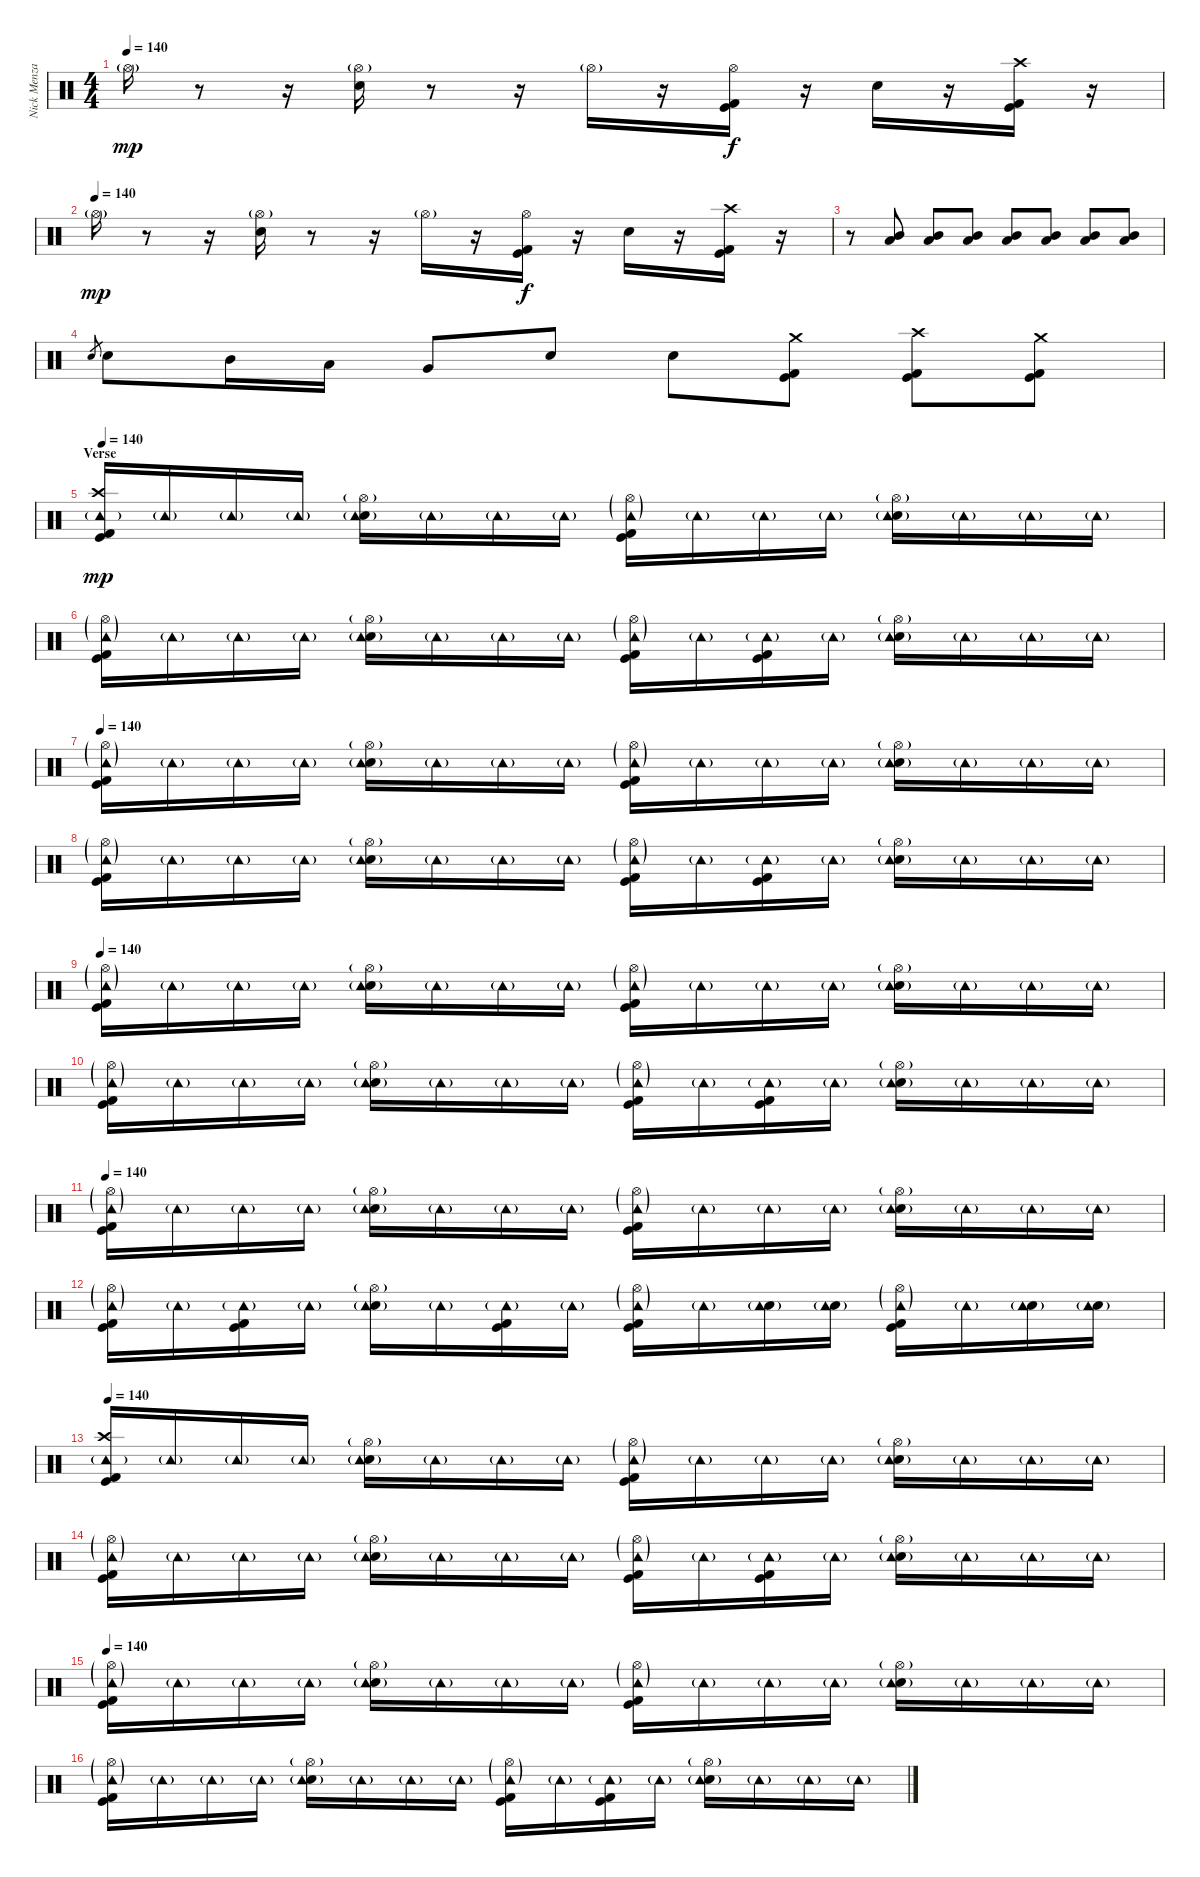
\track ("Nick Menza" "Nick Menza") {instrument percussion}
\staff {score}
\articulation defaults
\ts (4 4)
\tempo 140
\clef neutral
\ks c "Hi-Hat (open)"{g}.16{dy mp}
r.8 r.16 ("Hi-Hat (open)"{g} "Electric Snare (hit)").16 r.8 r.16 "Hi-Hat (open)"{g}.16 r.16 ("Hi-Hat (open)" "Kick (hit)" "Kick (hit) 2").16{dy f} r.16 "Electric Snare (hit)".16 r.16 ("Crash high (hit)" "Kick (hit)" "Kick (hit) 2").16 r.16 |
\tempo (140)
"Hi-Hat (open)"{g}.16{dy mp} r.8 r.16 ("Hi-Hat (open)"{g} "Electric Snare (hit)").16 r.8 r.16 "Hi-Hat (open)"{g}.16 r.16 ("Hi-Hat (open)" "Kick (hit)" "Kick (hit) 2").16{dy f} r.16 "Electric Snare (hit)".16 r.16 ("Crash high (hit)" "Kick (hit)" "Kick (hit) 2").16 r.16 |
r.8 ("Mid Tom (hit)" "Low Floor Tom (hit)").8 ("Mid Tom (hit)" "Low Floor Tom (hit)").8 ("Mid Tom (hit)" "Low Floor Tom (hit)").8 ("Mid Tom (hit)" "Low Floor Tom (hit)").8 ("Mid Tom (hit)" "Low Floor Tom (hit)").8 ("Mid Tom (hit)" "Low Floor Tom (hit)").8 ("Mid Tom (hit)" "Low Floor Tom (hit)").8 |
"Electric Snare (hit)".8{gr} "Electric Snare (hit)".8 "Mid Tom (hit)".16 "Low Tom (hit)".16 "Very Low Tom (hit)".8 "Electric Snare (hit)".8 "Electric Snare (hit)".8 ("Crash medium (hit)" "Kick (hit)" "Kick (hit) 2").8 ("Crash high (hit)" "Kick (hit)" "Kick (hit) 2").8 ("Crash medium (hit)" "Kick (hit)" "Kick (hit) 2").8 |
\section ("" "Verse")
\tempo 140
("Crash high (hit)" "Kick (hit)" "Kick (hit) 2" "Tambourine (hit)"{g}).16{dy mp} "Tambourine (hit)"{g}.16 "Tambourine (hit)"{g}.16 "Tambourine (hit)"{g}.16 ("Hi-Hat (open)"{g} "Electric Snare (hit)" "Tambourine (hit)"{g}).16 "Tambourine (hit)"{g}.16 "Tambourine (hit)"{g}.16 "Tambourine (hit)"{g}.16 ("Hi-Hat (open)"{g} "Kick (hit)" "Kick (hit) 2" "Tambourine (hit)"{g}).16 "Tambourine (hit)"{g}.16 "Tambourine (hit)"{g}.16 "Tambourine (hit)"{g}.16 ("Hi-Hat (open)"{g} "Electric Snare (hit)" "Tambourine (hit)"{g}).16 "Tambourine (hit)"{g}.16 "Tambourine (hit)"{g}.16 "Tambourine (hit)"{g}.16 |
("Hi-Hat (open)"{g} "Kick (hit)" "Kick (hit) 2" "Tambourine (hit)"{g}).16 "Tambourine (hit)"{g}.16 "Tambourine (hit)"{g}.16 "Tambourine (hit)"{g}.16 ("Hi-Hat (open)"{g} "Electric Snare (hit)" "Tambourine (hit)"{g}).16 "Tambourine (hit)"{g}.16 "Tambourine (hit)"{g}.16 "Tambourine (hit)"{g}.16 ("Hi-Hat (open)"{g} "Kick (hit)" "Kick (hit) 2" "Tambourine (hit)"{g}).16 "Tambourine (hit)"{g}.16 ("Kick (hit)" "Kick (hit) 2" "Tambourine (hit)"{g}).16 "Tambourine (hit)"{g}.16 ("Hi-Hat (open)"{g} "Electric Snare (hit)" "Tambourine (hit)"{g}).16 "Tambourine (hit)"{g}.16 "Tambourine (hit)"{g}.16 "Tambourine (hit)"{g}.16 |
\tempo 140
("Hi-Hat (open)"{g} "Kick (hit)" "Kick (hit) 2" "Tambourine (hit)"{g}).16 "Tambourine (hit)"{g}.16 "Tambourine (hit)"{g}.16 "Tambourine (hit)"{g}.16 ("Hi-Hat (open)"{g} "Electric Snare (hit)" "Tambourine (hit)"{g}).16 "Tambourine (hit)"{g}.16 "Tambourine (hit)"{g}.16 "Tambourine (hit)"{g}.16 ("Hi-Hat (open)"{g} "Kick (hit)" "Kick (hit) 2" "Tambourine (hit)"{g}).16 "Tambourine (hit)"{g}.16 "Tambourine (hit)"{g}.16 "Tambourine (hit)"{g}.16 ("Hi-Hat (open)"{g} "Electric Snare (hit)" "Tambourine (hit)"{g}).16 "Tambourine (hit)"{g}.16 "Tambourine (hit)"{g}.16 "Tambourine (hit)"{g}.16 |
("Hi-Hat (open)"{g} "Kick (hit)" "Kick (hit) 2" "Tambourine (hit)"{g}).16 "Tambourine (hit)"{g}.16 "Tambourine (hit)"{g}.16 "Tambourine (hit)"{g}.16 ("Hi-Hat (open)"{g} "Electric Snare (hit)" "Tambourine (hit)"{g}).16 "Tambourine (hit)"{g}.16 "Tambourine (hit)"{g}.16 "Tambourine (hit)"{g}.16 ("Hi-Hat (open)"{g} "Kick (hit)" "Kick (hit) 2" "Tambourine (hit)"{g}).16 "Tambourine (hit)"{g}.16 ("Kick (hit)" "Kick (hit) 2" "Tambourine (hit)"{g}).16 "Tambourine (hit)"{g}.16 ("Hi-Hat (open)"{g} "Electric Snare (hit)" "Tambourine (hit)"{g}).16 "Tambourine (hit)"{g}.16 "Tambourine (hit)"{g}.16 "Tambourine (hit)"{g}.16 |
\tempo 140
("Hi-Hat (open)"{g} "Kick (hit)" "Kick (hit) 2" "Tambourine (hit)"{g}).16 "Tambourine (hit)"{g}.16 "Tambourine (hit)"{g}.16 "Tambourine (hit)"{g}.16 ("Hi-Hat (open)"{g} "Electric Snare (hit)" "Tambourine (hit)"{g}).16 "Tambourine (hit)"{g}.16 "Tambourine (hit)"{g}.16 "Tambourine (hit)"{g}.16 ("Hi-Hat (open)"{g} "Kick (hit)" "Kick (hit) 2" "Tambourine (hit)"{g}).16 "Tambourine (hit)"{g}.16 "Tambourine (hit)"{g}.16 "Tambourine (hit)"{g}.16 ("Hi-Hat (open)"{g} "Electric Snare (hit)" "Tambourine (hit)"{g}).16 "Tambourine (hit)"{g}.16 "Tambourine (hit)"{g}.16 "Tambourine (hit)"{g}.16 |
("Hi-Hat (open)"{g} "Kick (hit)" "Kick (hit) 2" "Tambourine (hit)"{g}).16 "Tambourine (hit)"{g}.16 "Tambourine (hit)"{g}.16 "Tambourine (hit)"{g}.16 ("Hi-Hat (open)"{g} "Electric Snare (hit)" "Tambourine (hit)"{g}).16 "Tambourine (hit)"{g}.16 "Tambourine (hit)"{g}.16 "Tambourine (hit)"{g}.16 ("Hi-Hat (open)"{g} "Kick (hit)" "Kick (hit) 2" "Tambourine (hit)"{g}).16 "Tambourine (hit)"{g}.16 ("Kick (hit)" "Kick (hit) 2" "Tambourine (hit)"{g}).16 "Tambourine (hit)"{g}.16 ("Hi-Hat (open)"{g} "Electric Snare (hit)" "Tambourine (hit)"{g}).16 "Tambourine (hit)"{g}.16 "Tambourine (hit)"{g}.16 "Tambourine (hit)"{g}.16 |
\tempo 140
("Hi-Hat (open)"{g} "Kick (hit)" "Kick (hit) 2" "Tambourine (hit)"{g}).16 "Tambourine (hit)"{g}.16 "Tambourine (hit)"{g}.16 "Tambourine (hit)"{g}.16 ("Hi-Hat (open)"{g} "Electric Snare (hit)" "Tambourine (hit)"{g}).16 "Tambourine (hit)"{g}.16 "Tambourine (hit)"{g}.16 "Tambourine (hit)"{g}.16 ("Hi-Hat (open)"{g} "Kick (hit)" "Kick (hit) 2" "Tambourine (hit)"{g}).16 "Tambourine (hit)"{g}.16 "Tambourine (hit)"{g}.16 "Tambourine (hit)"{g}.16 ("Hi-Hat (open)"{g} "Electric Snare (hit)" "Tambourine (hit)"{g}).16 "Tambourine (hit)"{g}.16 "Tambourine (hit)"{g}.16 "Tambourine (hit)"{g}.16 |
("Hi-Hat (open)"{g} "Kick (hit)" "Kick (hit) 2" "Tambourine (hit)"{g}).16 "Tambourine (hit)"{g}.16 ("Kick (hit)" "Kick (hit) 2" "Tambourine (hit)"{g}).16 "Tambourine (hit)"{g}.16 ("Hi-Hat (open)"{g} "Electric Snare (hit)" "Tambourine (hit)"{g}).16 "Tambourine (hit)"{g}.16 ("Kick (hit)" "Kick (hit) 2" "Tambourine (hit)"{g}).16 "Tambourine (hit)"{g}.16 ("Hi-Hat (open)"{g} "Kick (hit)" "Kick (hit) 2" "Tambourine (hit)"{g}).16 "Tambourine (hit)"{g}.16 ("Electric Snare (hit)" "Tambourine (hit)"{g}).16 ("Electric Snare (hit)" "Tambourine (hit)"{g}).16 ("Hi-Hat (open)"{g} "Kick (hit)" "Kick (hit) 2" "Tambourine (hit)"{g}).16 "Tambourine (hit)"{g}.16 ("Electric Snare (hit)" "Tambourine (hit)"{g}).16 ("Electric Snare (hit)" "Tambourine (hit)"{g}).16 |
\tempo 140
("Crash high (hit)" "Kick (hit)" "Kick (hit) 2" "Tambourine (hit)"{g}).16 "Tambourine (hit)"{g}.16 "Tambourine (hit)"{g}.16 "Tambourine (hit)"{g}.16 ("Hi-Hat (open)"{g} "Electric Snare (hit)" "Tambourine (hit)"{g}).16 "Tambourine (hit)"{g}.16 "Tambourine (hit)"{g}.16 "Tambourine (hit)"{g}.16 ("Hi-Hat (open)"{g} "Kick (hit)" "Kick (hit) 2" "Tambourine (hit)"{g}).16 "Tambourine (hit)"{g}.16 "Tambourine (hit)"{g}.16 "Tambourine (hit)"{g}.16 ("Hi-Hat (open)"{g} "Electric Snare (hit)" "Tambourine (hit)"{g}).16 "Tambourine (hit)"{g}.16 "Tambourine (hit)"{g}.16 "Tambourine (hit)"{g}.16 |
("Hi-Hat (open)"{g} "Kick (hit)" "Kick (hit) 2" "Tambourine (hit)"{g}).16 "Tambourine (hit)"{g}.16 "Tambourine (hit)"{g}.16 "Tambourine (hit)"{g}.16 ("Hi-Hat (open)"{g} "Electric Snare (hit)" "Tambourine (hit)"{g}).16 "Tambourine (hit)"{g}.16 "Tambourine (hit)"{g}.16 "Tambourine (hit)"{g}.16 ("Hi-Hat (open)"{g} "Kick (hit)" "Kick (hit) 2" "Tambourine (hit)"{g}).16 "Tambourine (hit)"{g}.16 ("Kick (hit)" "Kick (hit) 2" "Tambourine (hit)"{g}).16 "Tambourine (hit)"{g}.16 ("Hi-Hat (open)"{g} "Electric Snare (hit)" "Tambourine (hit)"{g}).16 "Tambourine (hit)"{g}.16 "Tambourine (hit)"{g}.16 "Tambourine (hit)"{g}.16 |
\tempo 140
("Hi-Hat (open)"{g} "Kick (hit)" "Kick (hit) 2" "Tambourine (hit)"{g}).16 "Tambourine (hit)"{g}.16 "Tambourine (hit)"{g}.16 "Tambourine (hit)"{g}.16 ("Hi-Hat (open)"{g} "Electric Snare (hit)" "Tambourine (hit)"{g}).16 "Tambourine (hit)"{g}.16 "Tambourine (hit)"{g}.16 "Tambourine (hit)"{g}.16 ("Hi-Hat (open)"{g} "Kick (hit)" "Kick (hit) 2" "Tambourine (hit)"{g}).16 "Tambourine (hit)"{g}.16 "Tambourine (hit)"{g}.16 "Tambourine (hit)"{g}.16 ("Hi-Hat (open)"{g} "Electric Snare (hit)" "Tambourine (hit)"{g}).16 "Tambourine (hit)"{g}.16 "Tambourine (hit)"{g}.16 "Tambourine (hit)"{g}.16 |
("Hi-Hat (open)"{g} "Kick (hit)" "Kick (hit) 2" "Tambourine (hit)"{g}).16 "Tambourine (hit)"{g}.16 "Tambourine (hit)"{g}.16 "Tambourine (hit)"{g}.16 ("Hi-Hat (open)"{g} "Electric Snare (hit)" "Tambourine (hit)"{g}).16 "Tambourine (hit)"{g}.16 "Tambourine (hit)"{g}.16 "Tambourine (hit)"{g}.16 ("Hi-Hat (open)"{g} "Kick (hit)" "Kick (hit) 2" "Tambourine (hit)"{g}).16 "Tambourine (hit)"{g}.16 ("Kick (hit)" "Kick (hit) 2" "Tambourine (hit)"{g}).16 "Tambourine (hit)"{g}.16 ("Hi-Hat (open)"{g} "Electric Snare (hit)" "Tambourine (hit)"{g}).16 "Tambourine (hit)"{g}.16 "Tambourine (hit)"{g}.16 "Tambourine (hit)"{g}.16
